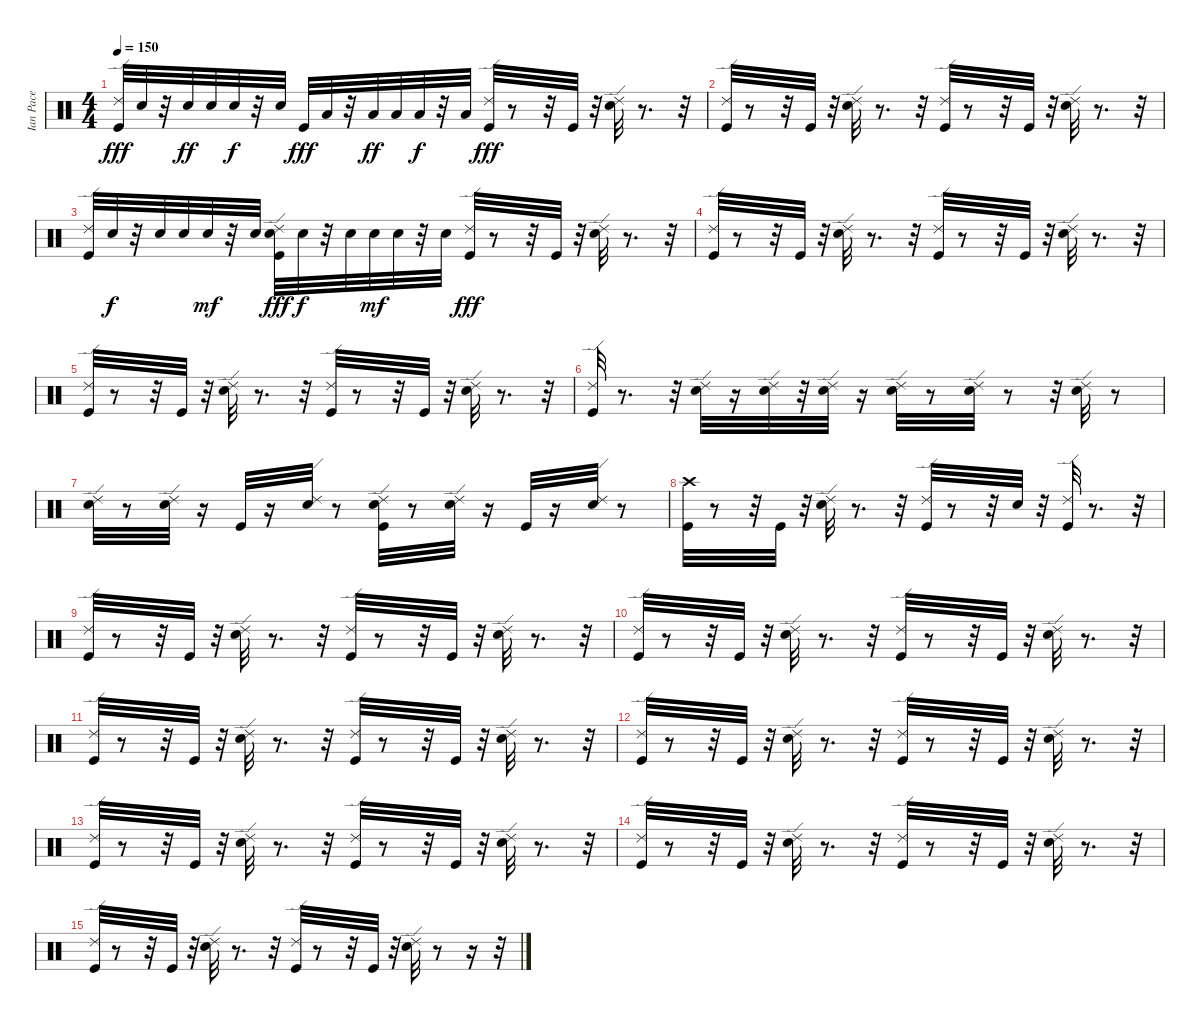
\track ("Ian Pace" "Ian Pace") {instrument percussion}
\staff {score}
\articulation defaults
\ts (4 4)
\tempo 150
\clef neutral
\ks c
("Ride (edge) 2" "Kick (hit)").32{dy fff} "Electric Snare (hit)".32 r.32 "Electric Snare (hit)".32{dy ff} "Electric Snare (hit)".32 "Electric Snare (hit)".32{dy f} r.32 "Electric Snare (hit)".32 "Kick (hit)".32{dy fff} "Low Tom (hit)".32 r.32 "Low Tom (hit)".32{dy ff} "Low Tom (hit)".32 "Low Tom (hit)".32{dy f} r.32 "Low Tom (hit)".32 ("Ride (edge) 2" "Kick (hit)").32{dy fff} r.8 r.32 "Kick (hit)".32 r.32 ("Electric Snare (hit)" "Ride (edge) 2").32 r.8{d} r.32 |
("Kick (hit)" "Ride (edge) 2").32 r.8 r.32 "Kick (hit)".32 r.32 ("Electric Snare (hit)" "Ride (edge) 2").32 r.8{d} r.32 ("Kick (hit)" "Ride (edge) 2").32 r.8 r.32 "Kick (hit)".32 r.32 ("Electric Snare (hit)" "Ride (edge) 2").32 r.8{d} r.32 |
("Kick (hit)" "Ride (edge) 2").32 "Electric Snare (hit)".32{dy f} r.32 "Electric Snare (hit)".32 "Electric Snare (hit)".32 "Electric Snare (hit)".32{dy mf} r.32 "Electric Snare (hit)".32 ("Ride (edge) 2" "Kick (hit)" "Electric Snare (hit)").32{dy fff} "Electric Snare (hit)".32{dy f} r.32 "Electric Snare (hit)".32 "Electric Snare (hit)".32{dy mf} "Electric Snare (hit)".32 r.32 "Electric Snare (hit)".32 ("Ride (edge) 2" "Kick (hit)").32{dy fff} r.8 r.32 "Kick (hit)".32 r.32 ("Electric Snare (hit)" "Ride (edge) 2").32 r.8{d} r.32 |
("Kick (hit)" "Ride (edge) 2").32 r.8 r.32 "Kick (hit)".32 r.32 ("Electric Snare (hit)" "Ride (edge) 2").32 r.8{d} r.32 ("Kick (hit)" "Ride (edge) 2").32 r.8 r.32 "Kick (hit)".32 r.32 ("Ride (edge) 2" "Electric Snare (hit)").32 r.8{d} r.32 |
("Kick (hit)" "Ride (edge) 2").32 r.8 r.32 "Kick (hit)".32 r.32 ("Ride (edge) 2" "Electric Snare (hit)").32 r.8{d} r.32 ("Ride (edge) 2" "Kick (hit)").32 r.8 r.32 "Kick (hit)".32 r.32 ("Electric Snare (hit)" "Ride (edge) 2").32 r.8{d} r.32 |
("Kick (hit)" "Ride (edge) 2").32 r.8{d} r.32 ("Ride (edge) 2" "Electric Snare (hit)").32 r.16 ("Ride (edge) 2" "Electric Snare (hit)").32 r.32 ("Ride (edge) 2" "Electric Snare (hit)").32 r.16 ("Electric Snare (hit)" "Ride (edge) 2").32 r.8 ("Ride (edge) 2" "Electric Snare (hit)").32 r.8 r.32 ("Electric Snare (hit)" "Ride (edge) 2").32 r.8 |
("Ride (edge) 2" "Electric Snare (hit)").32 r.8 ("Electric Snare (hit)" "Ride (edge) 2").32 r.16 "Kick (hit)".32 r.16 ("Electric Snare (hit)" "Ride (edge) 2").32 r.8 ("Kick (hit)" "Electric Snare (hit)" "Ride (edge) 2").32 r.8 ("Electric Snare (hit)" "Ride (edge) 2").32 r.16 "Kick (hit)".32 r.16 ("Electric Snare (hit)" "Ride (edge) 2").32 r.8 |
("Crash high (hit)" "Kick (hit)").32 r.8 r.32 "Kick (hit)".32 r.32 ("Ride (edge) 2" "Electric Snare (hit)").32 r.8{d} r.32 ("Kick (hit)" "Ride (edge) 2").32 r.8 r.32 "Electric Snare (hit)".32 r.32 ("Ride (edge) 2" "Kick (hit)").32 r.8{d} r.32 |
("Kick (hit)" "Ride (edge) 2").32 r.8 r.32 "Kick (hit)".32 r.32 ("Electric Snare (hit)" "Ride (edge) 2").32 r.8{d} r.32 ("Kick (hit)" "Ride (edge) 2").32 r.8 r.32 "Kick (hit)".32 r.32 ("Electric Snare (hit)" "Ride (edge) 2").32 r.8{d} r.32 |
("Kick (hit)" "Ride (edge) 2").32 r.8 r.32 "Kick (hit)".32 r.32 ("Ride (edge) 2" "Electric Snare (hit)").32 r.8{d} r.32 ("Kick (hit)" "Ride (edge) 2").32 r.8 r.32 "Kick (hit)".32 r.32 ("Electric Snare (hit)" "Ride (edge) 2").32 r.8{d} r.32 |
("Kick (hit)" "Ride (edge) 2").32 r.8 r.32 "Kick (hit)".32 r.32 ("Electric Snare (hit)" "Ride (edge) 2").32 r.8{d} r.32 ("Ride (edge) 2" "Kick (hit)").32 r.8 r.32 "Kick (hit)".32 r.32 ("Electric Snare (hit)" "Ride (edge) 2").32 r.8{d} r.32 |
("Ride (edge) 2" "Kick (hit)").32 r.8 r.32 "Kick (hit)".32 r.32 ("Electric Snare (hit)" "Ride (edge) 2").32 r.8{d} r.32 ("Ride (edge) 2" "Kick (hit)").32 r.8 r.32 "Kick (hit)".32 r.32{volume 0} ("Ride (edge) 2" "Electric Snare (hit)").32 r.8{d} r.32 |
("Ride (edge) 2" "Kick (hit)").32 r.8 r.32 "Kick (hit)".32 r.32 ("Electric Snare (hit)" "Ride (edge) 2").32 r.8{d} r.32 ("Ride (edge) 2" "Kick (hit)").32 r.8 r.32 "Kick (hit)".32 r.32 ("Electric Snare (hit)" "Ride (edge) 2").32 r.8{d} r.32 |
("Ride (edge) 2" "Kick (hit)").32 r.8 r.32 "Kick (hit)".32 r.32 ("Ride (edge) 2" "Electric Snare (hit)").32 r.8{d} r.32 ("Ride (edge) 2" "Kick (hit)").32 r.8 r.32 "Kick (hit)".32 r.32 ("Ride (edge) 2" "Electric Snare (hit)").32 r.8{d} r.32 |
("Ride (edge) 2" "Kick (hit)").32 r.8 r.32 "Kick (hit)".32 r.32 ("Ride (edge) 2" "Electric Snare (hit)").32 r.8{d} r.32 ("Ride (edge) 2" "Kick (hit)").32 r.8 r.32 "Kick (hit)".32 r.32 ("Ride (edge) 2" "Electric Snare (hit)").32 r.8 r.16 r.32
